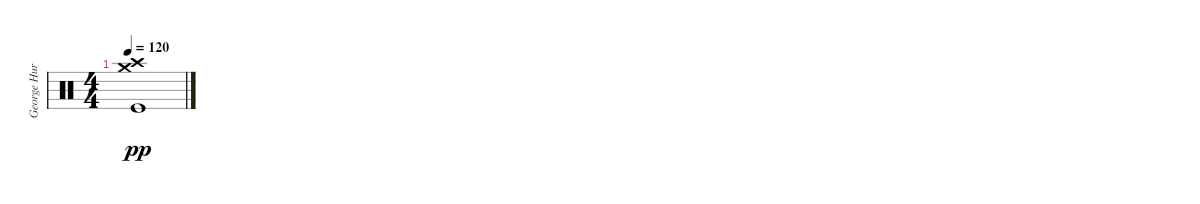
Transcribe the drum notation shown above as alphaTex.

\track ("George Hurley" "George Hur") {instrument percussion}
\staff {score}
\articulation defaults
\ts (4 4)
\tempo 120
\clef neutral
\ks c
("Crash high (hit)" "Kick (hit)" "Crash medium (hit)").1{dy pp}
